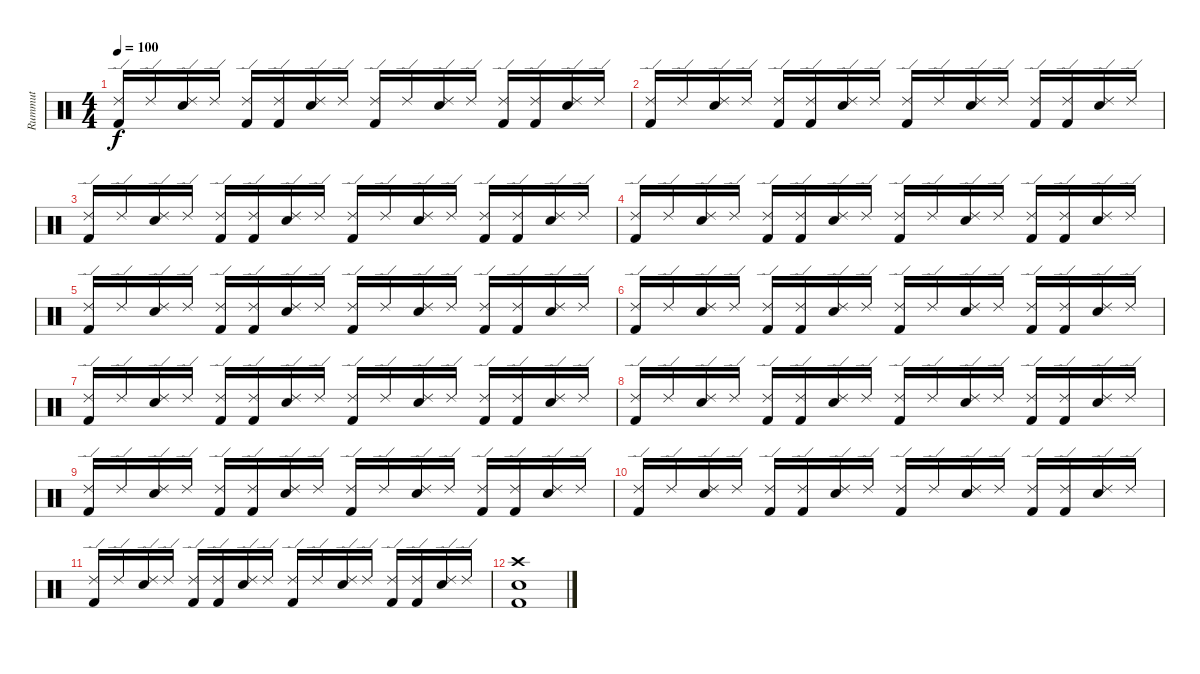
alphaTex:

\track ("Rummut" "Rummut") {instrument percussion}
\staff {score}
\articulation defaults
\ts (4 4)
\tempo 100
\clef neutral
\ks c
("Ride (edge) 2" "Kick (hit) 2").16{dy f} "Ride (edge) 2".16 ("Ride (edge) 2" "Snare (hit) 2").16 "Ride (edge) 2".16 ("Ride (edge) 2" "Kick (hit) 2").16 ("Ride (edge) 2" "Kick (hit) 2").16 ("Ride (edge) 2" "Snare (hit) 2").16 "Ride (edge) 2".16 ("Ride (edge) 2" "Kick (hit) 2").16 "Ride (edge) 2".16 ("Ride (edge) 2" "Snare (hit) 2").16 "Ride (edge) 2".16 ("Ride (edge) 2" "Kick (hit) 2").16 ("Ride (edge) 2" "Kick (hit) 2").16 ("Ride (edge) 2" "Snare (hit) 2").16 "Ride (edge) 2".16 |
("Ride (edge) 2" "Kick (hit) 2").16 "Ride (edge) 2".16 ("Ride (edge) 2" "Snare (hit) 2").16 "Ride (edge) 2".16 ("Ride (edge) 2" "Kick (hit) 2").16 ("Ride (edge) 2" "Kick (hit) 2").16 ("Ride (edge) 2" "Snare (hit) 2").16 "Ride (edge) 2".16 ("Ride (edge) 2" "Kick (hit) 2").16 "Ride (edge) 2".16 ("Ride (edge) 2" "Snare (hit) 2").16 "Ride (edge) 2".16 ("Ride (edge) 2" "Kick (hit) 2").16 ("Ride (edge) 2" "Kick (hit) 2").16 ("Ride (edge) 2" "Snare (hit) 2").16 "Ride (edge) 2".16 |
("Ride (edge) 2" "Kick (hit) 2").16 "Ride (edge) 2".16 ("Ride (edge) 2" "Snare (hit) 2").16 "Ride (edge) 2".16 ("Ride (edge) 2" "Kick (hit) 2").16 ("Ride (edge) 2" "Kick (hit) 2").16 ("Ride (edge) 2" "Snare (hit) 2").16 "Ride (edge) 2".16 ("Ride (edge) 2" "Kick (hit) 2").16 "Ride (edge) 2".16 ("Ride (edge) 2" "Snare (hit) 2").16 "Ride (edge) 2".16 ("Ride (edge) 2" "Kick (hit) 2").16 ("Ride (edge) 2" "Kick (hit) 2").16 ("Ride (edge) 2" "Snare (hit) 2").16 "Ride (edge) 2".16 |
("Ride (edge) 2" "Kick (hit) 2").16 "Ride (edge) 2".16 ("Ride (edge) 2" "Snare (hit) 2").16 "Ride (edge) 2".16 ("Ride (edge) 2" "Kick (hit) 2").16 ("Ride (edge) 2" "Kick (hit) 2").16 ("Ride (edge) 2" "Snare (hit) 2").16 "Ride (edge) 2".16 ("Ride (edge) 2" "Kick (hit) 2").16 "Ride (edge) 2".16 ("Ride (edge) 2" "Snare (hit) 2").16 "Ride (edge) 2".16 ("Ride (edge) 2" "Kick (hit) 2").16 ("Ride (edge) 2" "Kick (hit) 2").16 ("Ride (edge) 2" "Snare (hit) 2").16 "Ride (edge) 2".16 |
("Ride (edge) 2" "Kick (hit) 2").16 "Ride (edge) 2".16 ("Ride (edge) 2" "Snare (hit) 2").16 "Ride (edge) 2".16 ("Ride (edge) 2" "Kick (hit) 2").16 ("Ride (edge) 2" "Kick (hit) 2").16 ("Ride (edge) 2" "Snare (hit) 2").16 "Ride (edge) 2".16 ("Ride (edge) 2" "Kick (hit) 2").16 "Ride (edge) 2".16 ("Ride (edge) 2" "Snare (hit) 2").16 "Ride (edge) 2".16 ("Ride (edge) 2" "Kick (hit) 2").16 ("Ride (edge) 2" "Kick (hit) 2").16 ("Ride (edge) 2" "Snare (hit) 2").16 "Ride (edge) 2".16 |
("Ride (edge) 2" "Kick (hit) 2").16 "Ride (edge) 2".16 ("Ride (edge) 2" "Snare (hit) 2").16 "Ride (edge) 2".16 ("Ride (edge) 2" "Kick (hit) 2").16 ("Ride (edge) 2" "Kick (hit) 2").16 ("Ride (edge) 2" "Snare (hit) 2").16 "Ride (edge) 2".16 ("Ride (edge) 2" "Kick (hit) 2").16 "Ride (edge) 2".16 ("Ride (edge) 2" "Snare (hit) 2").16 "Ride (edge) 2".16 ("Ride (edge) 2" "Kick (hit) 2").16 ("Ride (edge) 2" "Kick (hit) 2").16 ("Ride (edge) 2" "Snare (hit) 2").16 "Ride (edge) 2".16 |
("Ride (edge) 2" "Kick (hit) 2").16 "Ride (edge) 2".16 ("Ride (edge) 2" "Snare (hit) 2").16 "Ride (edge) 2".16 ("Ride (edge) 2" "Kick (hit) 2").16 ("Ride (edge) 2" "Kick (hit) 2").16 ("Ride (edge) 2" "Snare (hit) 2").16 "Ride (edge) 2".16 ("Ride (edge) 2" "Kick (hit) 2").16 "Ride (edge) 2".16 ("Ride (edge) 2" "Snare (hit) 2").16 "Ride (edge) 2".16 ("Ride (edge) 2" "Kick (hit) 2").16 ("Ride (edge) 2" "Kick (hit) 2").16 ("Ride (edge) 2" "Snare (hit) 2").16 "Ride (edge) 2".16 |
("Ride (edge) 2" "Kick (hit) 2").16 "Ride (edge) 2".16 ("Ride (edge) 2" "Snare (hit) 2").16 "Ride (edge) 2".16 ("Ride (edge) 2" "Kick (hit) 2").16 ("Ride (edge) 2" "Kick (hit) 2").16 ("Ride (edge) 2" "Snare (hit) 2").16 "Ride (edge) 2".16 ("Ride (edge) 2" "Kick (hit) 2").16 "Ride (edge) 2".16 ("Ride (edge) 2" "Snare (hit) 2").16 "Ride (edge) 2".16 ("Ride (edge) 2" "Kick (hit) 2").16 ("Ride (edge) 2" "Kick (hit) 2").16 ("Ride (edge) 2" "Snare (hit) 2").16 "Ride (edge) 2".16 |
("Ride (edge) 2" "Kick (hit) 2").16 "Ride (edge) 2".16 ("Ride (edge) 2" "Snare (hit) 2").16 "Ride (edge) 2".16 ("Ride (edge) 2" "Kick (hit) 2").16 ("Ride (edge) 2" "Kick (hit) 2").16 ("Ride (edge) 2" "Snare (hit) 2").16 "Ride (edge) 2".16 ("Ride (edge) 2" "Kick (hit) 2").16 "Ride (edge) 2".16 ("Ride (edge) 2" "Snare (hit) 2").16 "Ride (edge) 2".16 ("Ride (edge) 2" "Kick (hit) 2").16 ("Ride (edge) 2" "Kick (hit) 2").16 ("Ride (edge) 2" "Snare (hit) 2").16 "Ride (edge) 2".16 |
("Ride (edge) 2" "Kick (hit) 2").16 "Ride (edge) 2".16 ("Ride (edge) 2" "Snare (hit) 2").16 "Ride (edge) 2".16 ("Ride (edge) 2" "Kick (hit) 2").16 ("Ride (edge) 2" "Kick (hit) 2").16 ("Ride (edge) 2" "Snare (hit) 2").16 "Ride (edge) 2".16 ("Ride (edge) 2" "Kick (hit) 2").16 "Ride (edge) 2".16 ("Ride (edge) 2" "Snare (hit) 2").16 "Ride (edge) 2".16 ("Ride (edge) 2" "Kick (hit) 2").16 ("Ride (edge) 2" "Kick (hit) 2").16 ("Ride (edge) 2" "Snare (hit) 2").16 "Ride (edge) 2".16 |
("Ride (edge) 2" "Kick (hit) 2").16 "Ride (edge) 2".16 ("Ride (edge) 2" "Snare (hit) 2").16 "Ride (edge) 2".16 ("Ride (edge) 2" "Kick (hit) 2").16 ("Ride (edge) 2" "Kick (hit) 2").16 ("Ride (edge) 2" "Snare (hit) 2").16 "Ride (edge) 2".16 ("Ride (edge) 2" "Kick (hit) 2").16 "Ride (edge) 2".16 ("Ride (edge) 2" "Snare (hit) 2").16 "Ride (edge) 2".16 ("Ride (edge) 2" "Kick (hit) 2").16 ("Ride (edge) 2" "Kick (hit) 2").16 ("Ride (edge) 2" "Snare (hit) 2").16 "Ride (edge) 2".16 |
("Crash high (hit)" "Snare (hit) 2" "Kick (hit) 2").1
